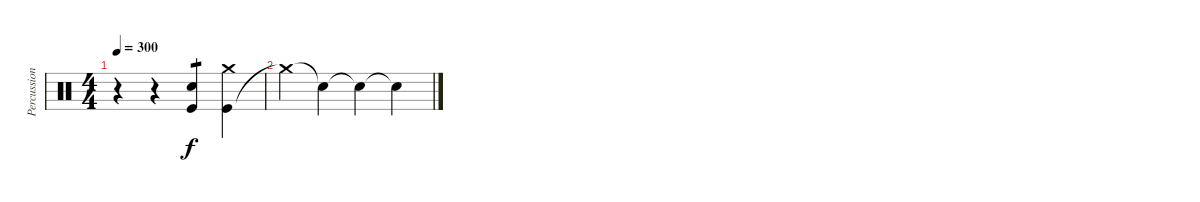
\track ("Percussion" "Percussion") {instrument percussion}
\staff {score}
\articulation defaults
\ts (4 4)
\tempo 300
\clef neutral
\ks c
r.4{dy f} r.4 ("Kick (hit)" "Electric Snare (hit)").4{tp 1} ("Kick (hit)" "Crash medium (hit)").4 |
"Crash medium (hit)"{t}.4 "Snare (hit)"{t}.4 "Snare (hit)"{t}.4 "Snare (hit)"{t}.4
